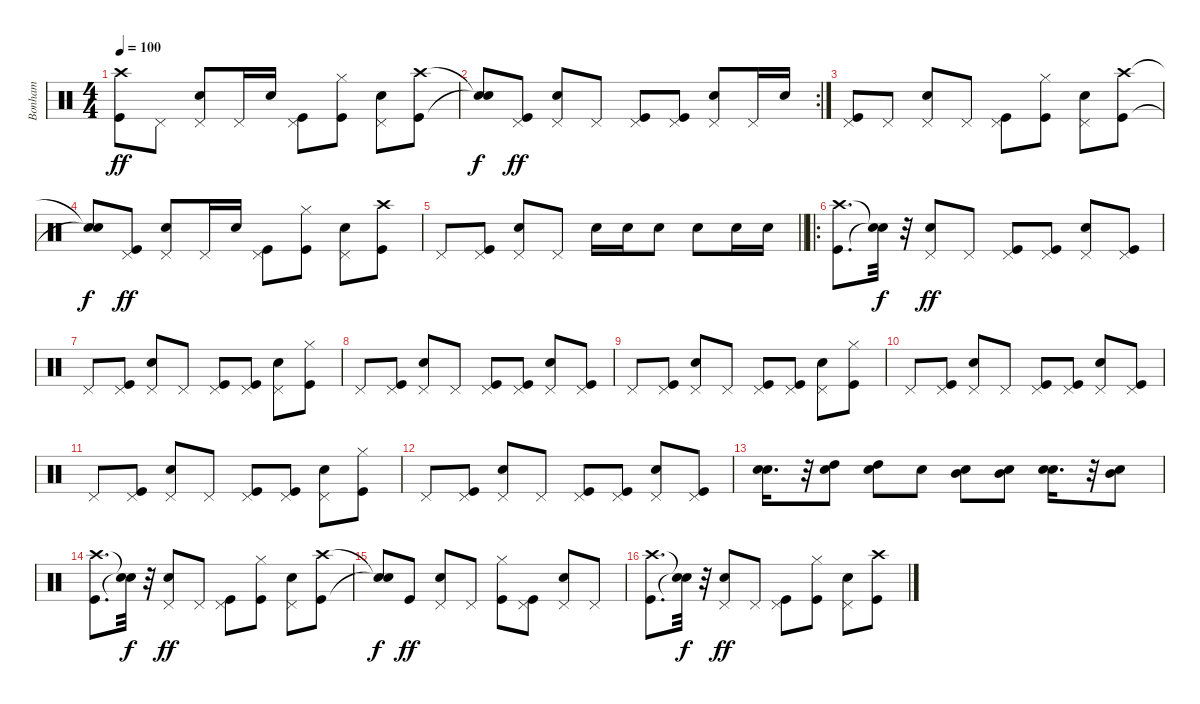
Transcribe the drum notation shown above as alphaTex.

\track ("Bonham" "Bonham") {instrument percussion}
\staff {score}
\articulation defaults
\ts (4 4)
\tempo 100
\clef neutral
\ks c
("Kick (hit)" "Crash high (hit)").8{dy ff} "Pedal Hi-Hat (hit)".8 ("Snare (hit) 2" "Pedal Hi-Hat (hit)").8 "Pedal Hi-Hat (hit)".16 "Snare (hit) 2".16 ("Kick (hit)" "Pedal Hi-Hat (hit)").8 ("Kick (hit)" "Hi-Hat (closed)").8 ("Snare (hit) 2" "Pedal Hi-Hat (hit)").8 ("Kick (hit)" "Crash high (hit)").8 |
\rc 2
("Snare (hit)"{t} "Snare (hit)"{t}).8{dy f} ("Kick (hit)" "Pedal Hi-Hat (hit)").8{dy ff} ("Snare (hit) 2" "Pedal Hi-Hat (hit)").8 "Pedal Hi-Hat (hit)".8 ("Kick (hit)" "Pedal Hi-Hat (hit)").8 ("Kick (hit)" "Pedal Hi-Hat (hit)").8 ("Snare (hit) 2" "Pedal Hi-Hat (hit)").8 "Pedal Hi-Hat (hit)".16 "Snare (hit) 2".16 |
("Kick (hit)" "Pedal Hi-Hat (hit)").8 "Pedal Hi-Hat (hit)".8 ("Snare (hit) 2" "Pedal Hi-Hat (hit)").8 "Pedal Hi-Hat (hit)".8 ("Kick (hit)" "Pedal Hi-Hat (hit)").8 ("Kick (hit)" "Hi-Hat (closed)").8 ("Snare (hit) 2" "Pedal Hi-Hat (hit)").8 ("Kick (hit)" "Crash high (hit)").8 |
("Snare (hit)"{t} "Snare (hit)"{t}).8{dy f} ("Kick (hit)" "Pedal Hi-Hat (hit)").8{dy ff} ("Snare (hit) 2" "Pedal Hi-Hat (hit)").8 "Pedal Hi-Hat (hit)".16 "Snare (hit) 2".16 ("Kick (hit)" "Pedal Hi-Hat (hit)").8 ("Kick (hit)" "Hi-Hat (closed)").8 ("Snare (hit) 2" "Pedal Hi-Hat (hit)").8 ("Kick (hit)" "Crash high (hit)").8 |
\barLineRight lightlight "Pedal Hi-Hat (hit)".8
("Kick (hit)" "Pedal Hi-Hat (hit)").8 ("Snare (hit) 2" "Pedal Hi-Hat (hit)").8 "Pedal Hi-Hat (hit)".8 "Snare (hit) 2".16 "Snare (hit) 2".16 "Snare (hit) 2".8 "Snare (hit) 2".8 "Snare (hit) 2".16 "Snare (hit) 2".16 |
\ro
("Kick (hit)" "Crash high (hit)").8{d} ("Snare (hit)"{t} "Snare (hit)"{t}).32{dy f} r.32 ("Snare (hit) 2" "Pedal Hi-Hat (hit)").8{dy ff} "Pedal Hi-Hat (hit)".8 ("Kick (hit)" "Pedal Hi-Hat (hit)").8 ("Kick (hit)" "Pedal Hi-Hat (hit)").8 ("Snare (hit) 2" "Pedal Hi-Hat (hit)").8 ("Kick (hit)" "Pedal Hi-Hat (hit)").8 |
"Pedal Hi-Hat (hit)".8 ("Kick (hit)" "Pedal Hi-Hat (hit)").8 ("Snare (hit) 2" "Pedal Hi-Hat (hit)").8 "Pedal Hi-Hat (hit)".8 ("Kick (hit)" "Pedal Hi-Hat (hit)").8 ("Kick (hit)" "Pedal Hi-Hat (hit)").8 ("Snare (hit) 2" "Pedal Hi-Hat (hit)").8 ("Kick (hit)" "Hi-Hat (closed)").8 |
"Pedal Hi-Hat (hit)".8 ("Kick (hit)" "Pedal Hi-Hat (hit)").8 ("Snare (hit) 2" "Pedal Hi-Hat (hit)").8 "Pedal Hi-Hat (hit)".8 ("Kick (hit)" "Pedal Hi-Hat (hit)").8 ("Kick (hit)" "Pedal Hi-Hat (hit)").8 ("Snare (hit) 2" "Pedal Hi-Hat (hit)").8 ("Kick (hit)" "Pedal Hi-Hat (hit)").8 |
"Pedal Hi-Hat (hit)".8 ("Kick (hit)" "Pedal Hi-Hat (hit)").8 ("Snare (hit) 2" "Pedal Hi-Hat (hit)").8 "Pedal Hi-Hat (hit)".8 ("Kick (hit)" "Pedal Hi-Hat (hit)").8 ("Kick (hit)" "Pedal Hi-Hat (hit)").8 ("Snare (hit) 2" "Pedal Hi-Hat (hit)").8 ("Kick (hit)" "Hi-Hat (closed)").8 |
"Pedal Hi-Hat (hit)".8 ("Kick (hit)" "Pedal Hi-Hat (hit)").8 ("Snare (hit) 2" "Pedal Hi-Hat (hit)").8 "Pedal Hi-Hat (hit)".8 ("Kick (hit)" "Pedal Hi-Hat (hit)").8 ("Kick (hit)" "Pedal Hi-Hat (hit)").8 ("Snare (hit) 2" "Pedal Hi-Hat (hit)").8 ("Kick (hit)" "Pedal Hi-Hat (hit)").8 |
"Pedal Hi-Hat (hit)".8 ("Kick (hit)" "Pedal Hi-Hat (hit)").8 ("Snare (hit) 2" "Pedal Hi-Hat (hit)").8 "Pedal Hi-Hat (hit)".8 ("Kick (hit)" "Pedal Hi-Hat (hit)").8 ("Kick (hit)" "Pedal Hi-Hat (hit)").8 ("Snare (hit) 2" "Pedal Hi-Hat (hit)").8 ("Kick (hit)" "Hi-Hat (closed)").8 |
"Pedal Hi-Hat (hit)".8 ("Kick (hit)" "Pedal Hi-Hat (hit)").8 ("Snare (hit) 2" "Pedal Hi-Hat (hit)").8 "Pedal Hi-Hat (hit)".8 ("Kick (hit)" "Pedal Hi-Hat (hit)").8 ("Kick (hit)" "Pedal Hi-Hat (hit)").8 ("Snare (hit) 2" "Pedal Hi-Hat (hit)").8 ("Kick (hit)" "Pedal Hi-Hat (hit)").8 |
("Snare (hit) 2" "Snare (hit) 2").16{d} r.32 ("Snare (hit) 2" "High Tom (hit)").8 ("Snare (hit) 2" "High Tom (hit)").8 "Snare (hit) 2".8 ("Snare (hit) 2" "Mid Tom (hit)").8 ("Snare (hit) 2" "Mid Tom (hit)").8 ("Snare (hit) 2" "Snare (hit) 2").16{d} r.32 ("Snare (hit) 2" "Mid Tom (hit)").8 |
("Kick (hit)" "Crash high (hit)").8{d} ("Snare (hit)"{t} "Snare (hit)"{t}).32{dy f} r.32 ("Snare (hit) 2" "Pedal Hi-Hat (hit)").8{dy ff} "Pedal Hi-Hat (hit)".8 ("Kick (hit)" "Pedal Hi-Hat (hit)").8 ("Kick (hit)" "Hi-Hat (closed)").8 ("Snare (hit) 2" "Pedal Hi-Hat (hit)").8 ("Kick (hit)" "Crash high (hit)").8 |
("Snare (hit)"{t} "Snare (hit)"{t}).8{dy f} "Kick (hit)".8{dy ff} ("Snare (hit) 2" "Pedal Hi-Hat (hit)").8 "Pedal Hi-Hat (hit)".8 ("Kick (hit)" "Hi-Hat (closed)").8 ("Kick (hit)" "Pedal Hi-Hat (hit)").8 ("Snare (hit) 2" "Pedal Hi-Hat (hit)").8 "Pedal Hi-Hat (hit)".8 |
("Kick (hit)" "Crash high (hit)").8{d} ("Snare (hit)"{t} "Snare (hit)"{t}).32{dy f} r.32 ("Snare (hit) 2" "Pedal Hi-Hat (hit)").8{dy ff} "Pedal Hi-Hat (hit)".8 ("Kick (hit)" "Pedal Hi-Hat (hit)").8 ("Kick (hit)" "Hi-Hat (closed)").8 ("Snare (hit) 2" "Pedal Hi-Hat (hit)").8 ("Kick (hit)" "Crash high (hit)").8
